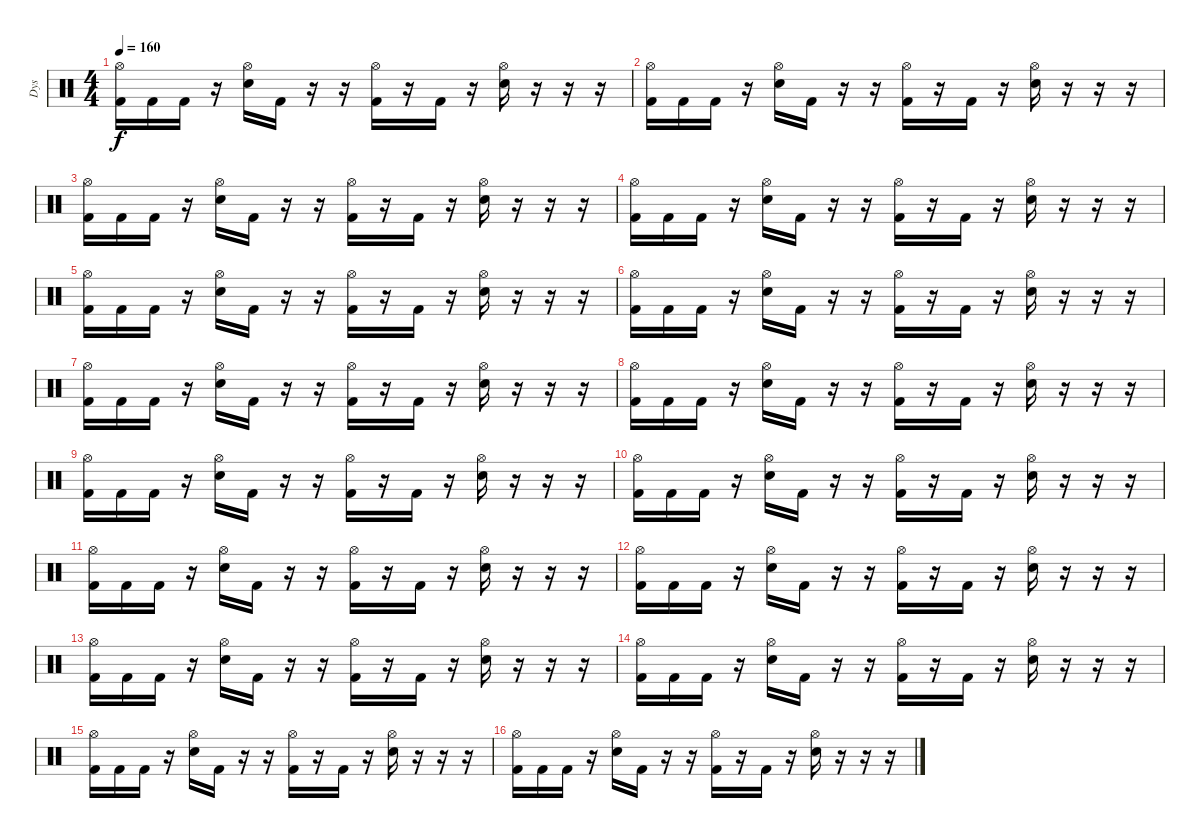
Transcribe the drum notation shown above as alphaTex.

\track ("Dys" "Dys") {instrument percussion}
\staff {score}
\articulation defaults
\ts (4 4)
\tempo 160
\clef neutral
\ks c
("Hi-Hat (open)" "Kick (hit) 2").16{dy f} "Kick (hit) 2".16 "Kick (hit) 2".16 r.16 ("Hi-Hat (open)" "Snare (hit) 2").16 "Kick (hit) 2".16 r.16 r.16 ("Hi-Hat (open)" "Kick (hit) 2").16 r.16 "Kick (hit) 2".16 r.16 ("Hi-Hat (open)" "Snare (hit) 2").16 r.16 r.16 r.16 |
("Hi-Hat (open)" "Kick (hit) 2").16 "Kick (hit) 2".16 "Kick (hit) 2".16 r.16 ("Hi-Hat (open)" "Snare (hit) 2").16 "Kick (hit) 2".16 r.16 r.16 ("Hi-Hat (open)" "Kick (hit) 2").16 r.16 "Kick (hit) 2".16 r.16 ("Hi-Hat (open)" "Snare (hit) 2").16 r.16 r.16 r.16 |
("Hi-Hat (open)" "Kick (hit) 2").16 "Kick (hit) 2".16 "Kick (hit) 2".16 r.16 ("Hi-Hat (open)" "Snare (hit) 2").16 "Kick (hit) 2".16 r.16 r.16 ("Hi-Hat (open)" "Kick (hit) 2").16 r.16 "Kick (hit) 2".16 r.16 ("Hi-Hat (open)" "Snare (hit) 2").16 r.16 r.16 r.16 |
("Hi-Hat (open)" "Kick (hit) 2").16 "Kick (hit) 2".16 "Kick (hit) 2".16 r.16 ("Hi-Hat (open)" "Snare (hit) 2").16 "Kick (hit) 2".16 r.16 r.16 ("Hi-Hat (open)" "Kick (hit) 2").16 r.16 "Kick (hit) 2".16 r.16 ("Hi-Hat (open)" "Snare (hit) 2").16 r.16 r.16 r.16 |
("Hi-Hat (open)" "Kick (hit) 2").16 "Kick (hit) 2".16 "Kick (hit) 2".16 r.16 ("Hi-Hat (open)" "Snare (hit) 2").16 "Kick (hit) 2".16 r.16 r.16 ("Hi-Hat (open)" "Kick (hit) 2").16 r.16 "Kick (hit) 2".16 r.16 ("Hi-Hat (open)" "Snare (hit) 2").16 r.16 r.16 r.16 |
("Hi-Hat (open)" "Kick (hit) 2").16 "Kick (hit) 2".16 "Kick (hit) 2".16 r.16 ("Hi-Hat (open)" "Snare (hit) 2").16 "Kick (hit) 2".16 r.16 r.16 ("Hi-Hat (open)" "Kick (hit) 2").16 r.16 "Kick (hit) 2".16 r.16 ("Hi-Hat (open)" "Snare (hit) 2").16 r.16 r.16 r.16 |
("Hi-Hat (open)" "Kick (hit) 2").16 "Kick (hit) 2".16 "Kick (hit) 2".16 r.16 ("Hi-Hat (open)" "Snare (hit) 2").16 "Kick (hit) 2".16 r.16 r.16 ("Hi-Hat (open)" "Kick (hit) 2").16 r.16 "Kick (hit) 2".16 r.16 ("Hi-Hat (open)" "Snare (hit) 2").16 r.16 r.16 r.16 |
("Hi-Hat (open)" "Kick (hit) 2").16 "Kick (hit) 2".16 "Kick (hit) 2".16 r.16 ("Hi-Hat (open)" "Snare (hit) 2").16 "Kick (hit) 2".16 r.16 r.16 ("Hi-Hat (open)" "Kick (hit) 2").16 r.16 "Kick (hit) 2".16 r.16 ("Hi-Hat (open)" "Snare (hit) 2").16 r.16 r.16 r.16 |
("Hi-Hat (open)" "Kick (hit) 2").16 "Kick (hit) 2".16 "Kick (hit) 2".16 r.16 ("Hi-Hat (open)" "Snare (hit) 2").16 "Kick (hit) 2".16 r.16 r.16 ("Hi-Hat (open)" "Kick (hit) 2").16 r.16 "Kick (hit) 2".16 r.16 ("Hi-Hat (open)" "Snare (hit) 2").16 r.16 r.16 r.16 |
("Hi-Hat (open)" "Kick (hit) 2").16 "Kick (hit) 2".16 "Kick (hit) 2".16 r.16 ("Hi-Hat (open)" "Snare (hit) 2").16 "Kick (hit) 2".16 r.16 r.16 ("Hi-Hat (open)" "Kick (hit) 2").16 r.16 "Kick (hit) 2".16 r.16 ("Hi-Hat (open)" "Snare (hit) 2").16 r.16 r.16 r.16 |
("Hi-Hat (open)" "Kick (hit) 2").16 "Kick (hit) 2".16 "Kick (hit) 2".16 r.16 ("Hi-Hat (open)" "Snare (hit) 2").16 "Kick (hit) 2".16 r.16 r.16 ("Hi-Hat (open)" "Kick (hit) 2").16 r.16 "Kick (hit) 2".16 r.16 ("Hi-Hat (open)" "Snare (hit) 2").16 r.16 r.16 r.16 |
("Hi-Hat (open)" "Kick (hit) 2").16 "Kick (hit) 2".16 "Kick (hit) 2".16 r.16 ("Hi-Hat (open)" "Snare (hit) 2").16 "Kick (hit) 2".16 r.16 r.16 ("Hi-Hat (open)" "Kick (hit) 2").16 r.16 "Kick (hit) 2".16 r.16 ("Hi-Hat (open)" "Snare (hit) 2").16 r.16 r.16 r.16 |
("Hi-Hat (open)" "Kick (hit) 2").16 "Kick (hit) 2".16 "Kick (hit) 2".16 r.16 ("Hi-Hat (open)" "Snare (hit) 2").16 "Kick (hit) 2".16 r.16 r.16 ("Hi-Hat (open)" "Kick (hit) 2").16 r.16 "Kick (hit) 2".16 r.16 ("Hi-Hat (open)" "Snare (hit) 2").16 r.16 r.16 r.16 |
("Hi-Hat (open)" "Kick (hit) 2").16 "Kick (hit) 2".16 "Kick (hit) 2".16 r.16 ("Hi-Hat (open)" "Snare (hit) 2").16 "Kick (hit) 2".16 r.16 r.16 ("Hi-Hat (open)" "Kick (hit) 2").16 r.16 "Kick (hit) 2".16 r.16 ("Hi-Hat (open)" "Snare (hit) 2").16 r.16 r.16 r.16 |
("Hi-Hat (open)" "Kick (hit) 2").16 "Kick (hit) 2".16 "Kick (hit) 2".16 r.16 ("Hi-Hat (open)" "Snare (hit) 2").16 "Kick (hit) 2".16 r.16 r.16 ("Hi-Hat (open)" "Kick (hit) 2").16 r.16 "Kick (hit) 2".16 r.16 ("Hi-Hat (open)" "Snare (hit) 2").16 r.16 r.16 r.16 |
("Hi-Hat (open)" "Kick (hit) 2").16 "Kick (hit) 2".16 "Kick (hit) 2".16 r.16 ("Hi-Hat (open)" "Snare (hit) 2").16 "Kick (hit) 2".16 r.16 r.16 ("Hi-Hat (open)" "Kick (hit) 2").16 r.16 "Kick (hit) 2".16 r.16 ("Hi-Hat (open)" "Snare (hit) 2").16 r.16 r.16 r.16
